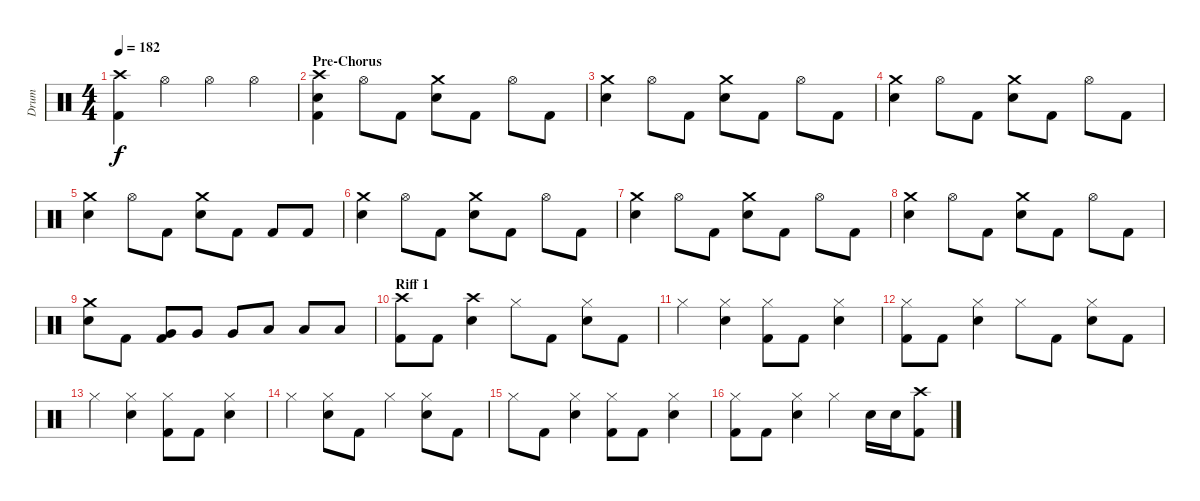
\track ("Drum" "Drum") {instrument percussion}
\staff {score}
\articulation defaults
\ts (4 4)
\tempo 182
\clef neutral
\ks c
("Crash high (hit)" "Kick (hit) 2").4{dy f} "Hi-Hat (open)".4 "Hi-Hat (open)".4 "Hi-Hat (open)".4 |
\section ("" "Pre-Chorus")
("Crash high (hit)" "Electric Snare (hit)" "Kick (hit) 2").4 "Hi-Hat (open)".8 "Kick (hit) 2".8 ("Crash medium (hit)" "Electric Snare (hit)").8 "Kick (hit) 2".8 "Hi-Hat (open)".8 "Kick (hit) 2".8 |
("Crash medium (hit)" "Electric Snare (hit)").4 "Hi-Hat (open)".8 "Kick (hit) 2".8 ("Crash medium (hit)" "Electric Snare (hit)").8 "Kick (hit) 2".8 "Hi-Hat (open)".8 "Kick (hit) 2".8 |
("Crash medium (hit)" "Electric Snare (hit)").4 "Hi-Hat (open)".8 "Kick (hit) 2".8 ("Crash medium (hit)" "Electric Snare (hit)").8 "Kick (hit) 2".8 "Hi-Hat (open)".8 "Kick (hit) 2".8 |
("Crash medium (hit)" "Electric Snare (hit)").4 "Hi-Hat (open)".8 "Kick (hit) 2".8 ("Crash medium (hit)" "Electric Snare (hit)").8 "Kick (hit) 2".8 "Kick (hit) 2".8 "Kick (hit) 2".8 |
("Crash medium (hit)" "Electric Snare (hit)").4 "Hi-Hat (open)".8 "Kick (hit) 2".8 ("Crash medium (hit)" "Electric Snare (hit)").8 "Kick (hit) 2".8 "Hi-Hat (open)".8 "Kick (hit) 2".8 |
("Crash medium (hit)" "Electric Snare (hit)").4 "Hi-Hat (open)".8 "Kick (hit) 2".8 ("Crash medium (hit)" "Electric Snare (hit)").8 "Kick (hit) 2".8 "Hi-Hat (open)".8 "Kick (hit) 2".8 |
("Crash medium (hit)" "Electric Snare (hit)").4 "Hi-Hat (open)".8 "Kick (hit) 2".8 ("Crash medium (hit)" "Electric Snare (hit)").8 "Kick (hit) 2".8 "Hi-Hat (open)".8 "Kick (hit) 2".8 |
("Crash medium (hit)" "Electric Snare (hit)").8 "Kick (hit) 2".8 ("Very Low Tom (hit)" "Kick (hit) 2").8 "Very Low Tom (hit)".8 "Very Low Tom (hit)".8 "Low Tom (hit)".8 "Low Tom (hit)".8 "Low Tom (hit)".8 |
\section ("" "Riff 1")
("Crash high (hit)" "Kick (hit) 2").8 "Kick (hit) 2".8 ("Crash high (hit)" "Electric Snare (hit)").4 "Hi-Hat (closed)".8 "Kick (hit) 2".8 ("Hi-Hat (closed)" "Electric Snare (hit)").8 "Kick (hit) 2".8 |
"Hi-Hat (closed)".4 ("Hi-Hat (closed)" "Electric Snare (hit)").4 ("Hi-Hat (closed)" "Kick (hit) 2").8 "Kick (hit) 2".8 ("Hi-Hat (closed)" "Electric Snare (hit)").4 |
("Hi-Hat (closed)" "Kick (hit) 2").8 "Kick (hit) 2".8 ("Hi-Hat (closed)" "Electric Snare (hit)").4 "Hi-Hat (closed)".8 "Kick (hit) 2".8 ("Hi-Hat (closed)" "Electric Snare (hit)").8 "Kick (hit) 2".8 |
"Hi-Hat (closed)".4 ("Hi-Hat (closed)" "Electric Snare (hit)").4 ("Hi-Hat (closed)" "Kick (hit) 2").8 "Kick (hit) 2".8 ("Hi-Hat (closed)" "Electric Snare (hit)").4 |
"Hi-Hat (closed)".4 ("Hi-Hat (closed)" "Electric Snare (hit)").8 "Kick (hit) 2".8 "Hi-Hat (closed)".4 ("Hi-Hat (closed)" "Electric Snare (hit)").8 "Kick (hit) 2".8 |
"Hi-Hat (closed)".8 "Kick (hit) 2".8 ("Hi-Hat (closed)" "Electric Snare (hit)").4 ("Hi-Hat (closed)" "Kick (hit) 2").8 "Kick (hit) 2".8 ("Hi-Hat (closed)" "Electric Snare (hit)").4 |
("Hi-Hat (closed)" "Kick (hit) 2").8 "Kick (hit) 2".8 ("Hi-Hat (closed)" "Electric Snare (hit)").4 "Hi-Hat (closed)".4 "Electric Snare (hit)".16 "Electric Snare (hit)".16 ("Crash high (hit)" "Kick (hit) 2").8
